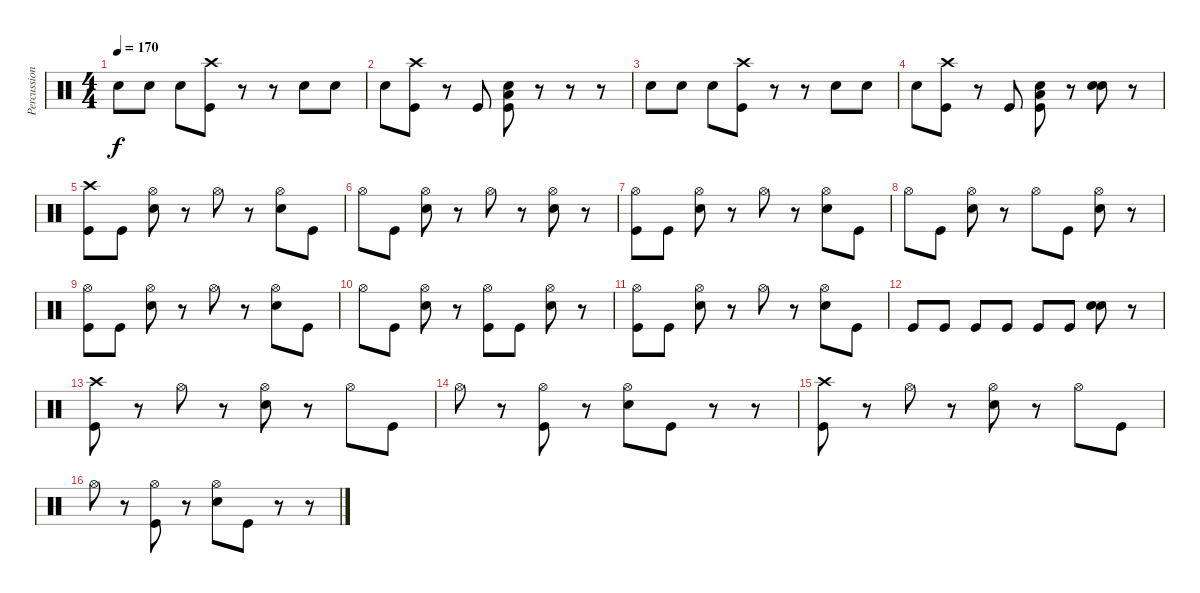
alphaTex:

\track ("Percussion" "Percussion") {instrument percussion}
\staff {score}
\articulation defaults
\ts (4 4)
\tempo 170
\clef neutral
\ks c "Snare (hit) 2".8{dy f} "Snare (hit) 2".8 "Snare (hit) 2".8
("Crash high (hit)" "Kick (hit)").8 r.8 r.8 "Snare (hit) 2".8 "Snare (hit) 2".8 |
"Snare (hit) 2".8 ("Crash high (hit)" "Kick (hit)").8 r.8 "Kick (hit)".8 ("Snare (hit) 2" "Low Tom (hit)" "Kick (hit)").8 r.8 r.8 r.8 |
"Snare (hit) 2".8 "Snare (hit) 2".8 "Snare (hit) 2".8 ("Crash high (hit)" "Kick (hit)").8 r.8 r.8 "Snare (hit) 2".8 "Snare (hit) 2".8 |
"Snare (hit) 2".8 ("Crash high (hit)" "Kick (hit)").8 r.8 "Kick (hit)".8 ("Snare (hit) 2" "Low Tom (hit)" "Kick (hit)").8 r.8 ("Snare (hit) 2" "Snare (hit) 2").8 r.8 |
("Crash high (hit)" "Kick (hit)").8 "Kick (hit)".8 ("Hi-Hat (open)" "Snare (hit) 2").8 r.8 "Hi-Hat (open)".8 r.8 ("Hi-Hat (open)" "Snare (hit) 2").8 "Kick (hit)".8 |
"Hi-Hat (open)".8 "Kick (hit)".8 ("Hi-Hat (open)" "Snare (hit) 2").8 r.8 "Hi-Hat (open)".8 r.8 ("Hi-Hat (open)" "Snare (hit) 2").8 r.8 |
("Hi-Hat (open)" "Kick (hit)").8 "Kick (hit)".8 ("Hi-Hat (open)" "Snare (hit) 2").8 r.8 "Hi-Hat (open)".8 r.8 ("Hi-Hat (open)" "Snare (hit) 2").8 "Kick (hit)".8 |
"Hi-Hat (open)".8 "Kick (hit)".8 ("Hi-Hat (open)" "Snare (hit) 2").8 r.8 "Hi-Hat (open)".8 "Kick (hit)".8 ("Hi-Hat (open)" "Snare (hit) 2").8 r.8 |
("Hi-Hat (open)" "Kick (hit)").8 "Kick (hit)".8 ("Hi-Hat (open)" "Snare (hit) 2").8 r.8 "Hi-Hat (open)".8 r.8 ("Hi-Hat (open)" "Snare (hit) 2").8 "Kick (hit)".8 |
"Hi-Hat (open)".8 "Kick (hit)".8 ("Hi-Hat (open)" "Snare (hit) 2").8 r.8 ("Hi-Hat (open)" "Kick (hit)").8 "Kick (hit)".8 ("Hi-Hat (open)" "Snare (hit) 2").8 r.8 |
("Hi-Hat (open)" "Kick (hit)").8 "Kick (hit)".8 ("Hi-Hat (open)" "Snare (hit) 2").8 r.8 "Hi-Hat (open)".8 r.8 ("Hi-Hat (open)" "Snare (hit) 2").8 "Kick (hit)".8 |
"Kick (hit)".8 "Kick (hit)".8 "Kick (hit)".8 "Kick (hit)".8 "Kick (hit)".8 "Kick (hit)".8 ("Snare (hit) 2" "Snare (hit) 2").8 r.8 |
("Crash high (hit)" "Kick (hit)").8 r.8 "Hi-Hat (open)".8 r.8 ("Hi-Hat (open)" "Snare (hit) 2").8 r.8 "Hi-Hat (open)".8 "Kick (hit)".8 |
"Hi-Hat (open)".8 r.8 ("Hi-Hat (open)" "Kick (hit)").8 r.8 ("Hi-Hat (open)" "Snare (hit) 2").8 "Kick (hit)".8 r.8 r.8 |
("Crash high (hit)" "Kick (hit)").8 r.8 "Hi-Hat (open)".8 r.8 ("Hi-Hat (open)" "Snare (hit) 2").8 r.8 "Hi-Hat (open)".8 "Kick (hit)".8 |
"Hi-Hat (open)".8 r.8 ("Hi-Hat (open)" "Kick (hit)").8 r.8 ("Hi-Hat (open)" "Snare (hit) 2").8 "Kick (hit)".8 r.8 r.8
